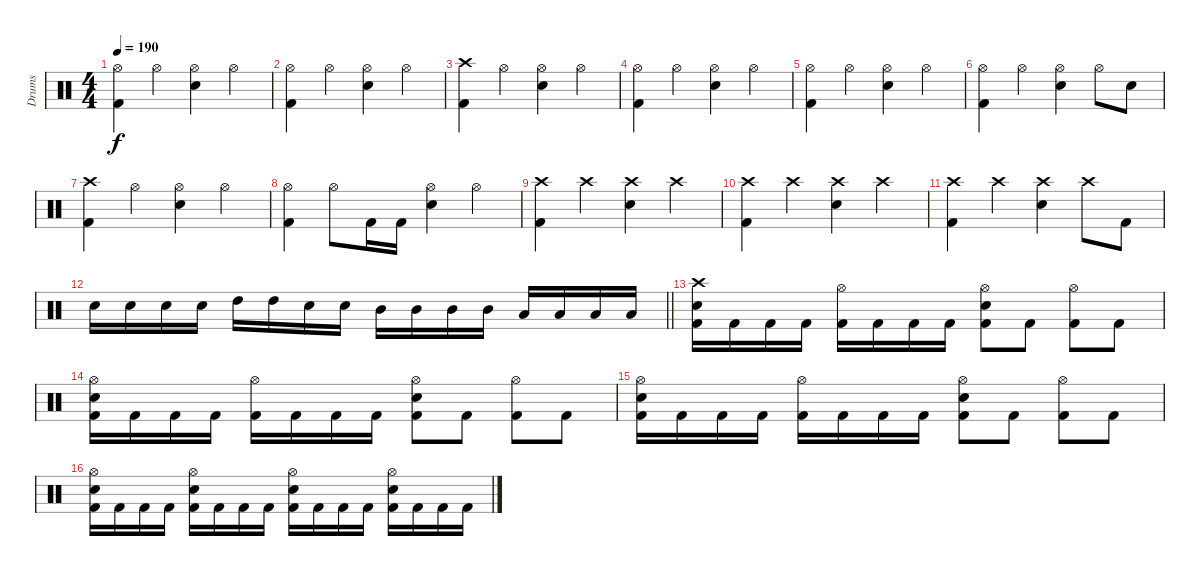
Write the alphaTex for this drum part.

\track ("Drums" "Drums") {instrument percussion}
\staff {score}
\articulation defaults
\ts (4 4)
\tempo 190
\clef neutral
\ks c
("Hi-Hat (open)" "Kick (hit) 2").4{dy f} "Hi-Hat (open)".4 ("Hi-Hat (open)" "Snare (hit) 2").4 "Hi-Hat (open)".4 |
("Hi-Hat (open)" "Kick (hit) 2").4 "Hi-Hat (open)".4 ("Hi-Hat (open)" "Snare (hit) 2").4 "Hi-Hat (open)".4 |
("Crash high (hit)" "Kick (hit) 2").4 "Hi-Hat (open)".4 ("Hi-Hat (open)" "Snare (hit) 2").4 "Hi-Hat (open)".4 |
("Hi-Hat (open)" "Kick (hit) 2").4 "Hi-Hat (open)".4 ("Hi-Hat (open)" "Snare (hit) 2").4 "Hi-Hat (open)".4 |
("Hi-Hat (open)" "Kick (hit) 2").4 "Hi-Hat (open)".4 ("Hi-Hat (open)" "Snare (hit) 2").4 "Hi-Hat (open)".4 |
("Hi-Hat (open)" "Kick (hit) 2").4 "Hi-Hat (open)".4 ("Hi-Hat (open)" "Snare (hit) 2").4 "Hi-Hat (open)".8 "Snare (hit) 2".8 |
("Crash high (hit)" "Kick (hit) 2").4 "Hi-Hat (open)".4 ("Hi-Hat (open)" "Snare (hit) 2").4 "Hi-Hat (open)".4 |
("Hi-Hat (open)" "Kick (hit) 2").4 "Hi-Hat (open)".8 "Kick (hit) 2".16 "Kick (hit) 2".16 ("Hi-Hat (open)" "Snare (hit) 2").4 "Hi-Hat (open)".4 |
("Crash high (hit)" "Kick (hit) 2").4 "Crash high (hit)".4 ("Crash high (hit)" "Snare (hit) 2").4 "Crash high (hit)".4 |
("Crash high (hit)" "Kick (hit) 2").4 "Crash high (hit)".4 ("Crash high (hit)" "Snare (hit) 2").4 "Crash high (hit)".4 |
("Crash high (hit)" "Kick (hit) 2").4 "Crash high (hit)".4 ("Crash high (hit)" "Snare (hit) 2").4 "Crash high (hit)".8 "Kick (hit) 2".8 |
\barLineRight lightlight "Snare (hit) 2".16 "Snare (hit) 2".16 "Snare (hit) 2".16 "Snare (hit) 2".16 "High Tom (hit)".16 "High Tom (hit)".16 "Snare (hit) 2".16 "Snare (hit) 2".16 "Mid Tom (hit)".16 "Mid Tom (hit)".16 "Mid Tom (hit)".16 "Mid Tom (hit)".16 "Low Tom (hit)".16 "Low Tom (hit)".16 "Low Tom (hit)".16 "Low Tom (hit)".16
|
\section ("" "")
("Crash high (hit)" "Snare (hit) 2" "Kick (hit) 2").16 "Kick (hit) 2".16 "Kick (hit) 2".16 "Kick (hit) 2".16 ("Hi-Hat (open)" "Kick (hit) 2").16 "Kick (hit) 2".16 "Kick (hit) 2".16 "Kick (hit) 2".16 ("Hi-Hat (open)" "Snare (hit) 2" "Kick (hit) 2").8 "Kick (hit) 2".8 ("Hi-Hat (open)" "Kick (hit) 2").8 "Kick (hit) 2".8 |
("Hi-Hat (open)" "Snare (hit) 2" "Kick (hit) 2").16 "Kick (hit) 2".16 "Kick (hit) 2".16 "Kick (hit) 2".16 ("Hi-Hat (open)" "Kick (hit) 2").16 "Kick (hit) 2".16 "Kick (hit) 2".16 "Kick (hit) 2".16 ("Hi-Hat (open)" "Snare (hit) 2" "Kick (hit) 2").8 "Kick (hit) 2".8 ("Hi-Hat (open)" "Kick (hit) 2").8 "Kick (hit) 2".8 |
("Hi-Hat (open)" "Snare (hit) 2" "Kick (hit) 2").16 "Kick (hit) 2".16 "Kick (hit) 2".16 "Kick (hit) 2".16 ("Hi-Hat (open)" "Kick (hit) 2").16 "Kick (hit) 2".16 "Kick (hit) 2".16 "Kick (hit) 2".16 ("Hi-Hat (open)" "Snare (hit) 2" "Kick (hit) 2").8 "Kick (hit) 2".8 ("Hi-Hat (open)" "Kick (hit) 2").8 "Kick (hit) 2".8 |
("Hi-Hat (open)" "Snare (hit) 2" "Kick (hit) 2").16 "Kick (hit) 2".16 "Kick (hit) 2".16 "Kick (hit) 2".16 ("Hi-Hat (open)" "Snare (hit) 2" "Kick (hit) 2").16 "Kick (hit) 2".16 "Kick (hit) 2".16 "Kick (hit) 2".16 ("Hi-Hat (open)" "Snare (hit) 2" "Kick (hit) 2").16 "Kick (hit) 2".16 "Kick (hit) 2".16 "Kick (hit) 2".16 ("Hi-Hat (open)" "Snare (hit) 2" "Kick (hit) 2").16 "Kick (hit) 2".16 "Kick (hit) 2".16 "Kick (hit) 2".16
